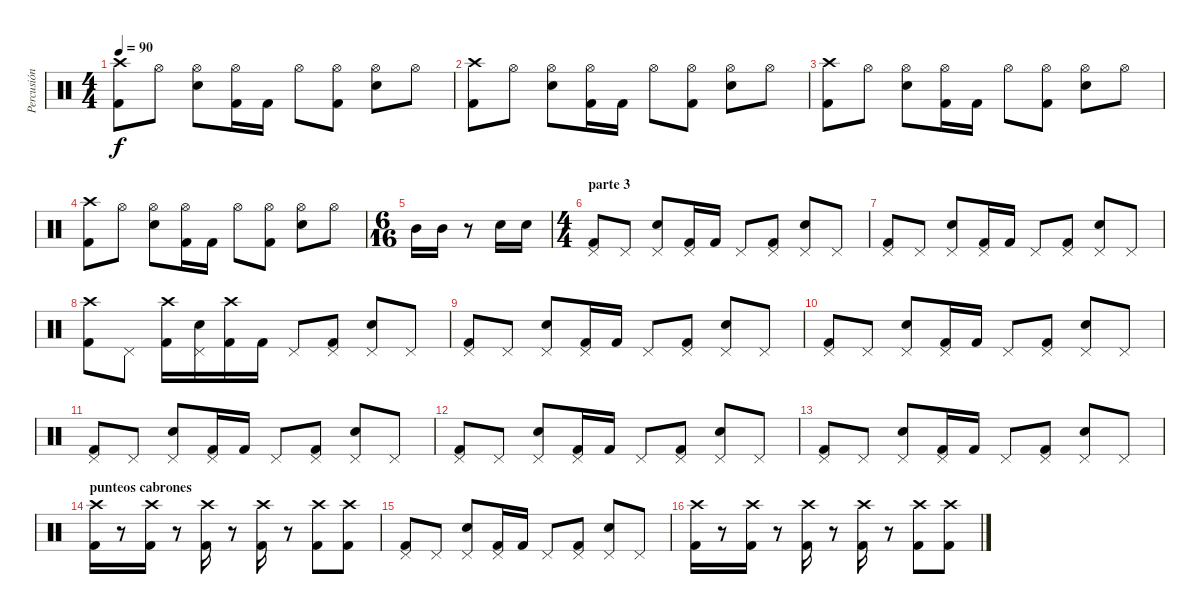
\track ("Percusión" "Percusión") {instrument percussion}
\staff {score}
\articulation defaults
\ts (4 4)
\tempo 90
\clef neutral
\ks c
("Crash high (hit)" "Kick (hit) 2").8{dy f} "Hi-Hat (open)".8 ("Hi-Hat (open)" "Electric Snare (hit)").8 ("Hi-Hat (open)" "Kick (hit) 2").16 "Kick (hit) 2".16 "Hi-Hat (open)".8 ("Hi-Hat (open)" "Kick (hit) 2").8 ("Hi-Hat (open)" "Electric Snare (hit)").8 "Hi-Hat (open)".8 |
("Crash high (hit)" "Kick (hit) 2").8 "Hi-Hat (open)".8 ("Hi-Hat (open)" "Electric Snare (hit)").8 ("Hi-Hat (open)" "Kick (hit) 2").16 "Kick (hit) 2".16 "Hi-Hat (open)".8 ("Hi-Hat (open)" "Kick (hit) 2").8 ("Hi-Hat (open)" "Electric Snare (hit)").8 "Hi-Hat (open)".8 |
("Crash high (hit)" "Kick (hit) 2").8 "Hi-Hat (open)".8 ("Hi-Hat (open)" "Electric Snare (hit)").8 ("Hi-Hat (open)" "Kick (hit) 2").16 "Kick (hit) 2".16 "Hi-Hat (open)".8 ("Hi-Hat (open)" "Kick (hit) 2").8 ("Hi-Hat (open)" "Electric Snare (hit)").8 "Hi-Hat (open)".8 |
("Crash high (hit)" "Kick (hit) 2").8 "Hi-Hat (open)".8 ("Hi-Hat (open)" "Electric Snare (hit)").8 ("Hi-Hat (open)" "Kick (hit) 2").16 "Kick (hit) 2".16 "Hi-Hat (open)".8 ("Hi-Hat (open)" "Kick (hit) 2").8 ("Hi-Hat (open)" "Electric Snare (hit)").8 "Hi-Hat (open)".8 |
\ts (6 16)
"Mid Tom (hit)".16 "Mid Tom (hit)".16 r.8 "Electric Snare (hit)".16 "Electric Snare (hit)".16 |
\ts (4 4)
\section ("" "parte 3")
("Pedal Hi-Hat (hit)" "Kick (hit) 2").8 "Pedal Hi-Hat (hit)".8 ("Pedal Hi-Hat (hit)" "Electric Snare (hit)").8 ("Pedal Hi-Hat (hit)" "Kick (hit) 2").16 "Kick (hit) 2".16 "Pedal Hi-Hat (hit)".8 ("Pedal Hi-Hat (hit)" "Kick (hit) 2").8 ("Pedal Hi-Hat (hit)" "Electric Snare (hit)").8 "Pedal Hi-Hat (hit)".8 |
("Pedal Hi-Hat (hit)" "Kick (hit) 2").8 "Pedal Hi-Hat (hit)".8 ("Pedal Hi-Hat (hit)" "Electric Snare (hit)").8 ("Pedal Hi-Hat (hit)" "Kick (hit) 2").16 "Kick (hit) 2".16 "Pedal Hi-Hat (hit)".8 ("Pedal Hi-Hat (hit)" "Kick (hit) 2").8 ("Pedal Hi-Hat (hit)" "Electric Snare (hit)").8 "Pedal Hi-Hat (hit)".8 |
("Crash high (hit)" "Kick (hit) 2").8 "Pedal Hi-Hat (hit)".8 ("Crash high (hit)" "Kick (hit) 2").16 ("Pedal Hi-Hat (hit)" "Electric Snare (hit)").16 ("Crash high (hit)" "Kick (hit) 2").16 "Kick (hit) 2".16 "Pedal Hi-Hat (hit)".8 ("Pedal Hi-Hat (hit)" "Kick (hit) 2").8 ("Pedal Hi-Hat (hit)" "Electric Snare (hit)").8 "Pedal Hi-Hat (hit)".8 |
("Pedal Hi-Hat (hit)" "Kick (hit) 2").8 "Pedal Hi-Hat (hit)".8 ("Pedal Hi-Hat (hit)" "Electric Snare (hit)").8 ("Pedal Hi-Hat (hit)" "Kick (hit) 2").16 "Kick (hit) 2".16 "Pedal Hi-Hat (hit)".8 ("Pedal Hi-Hat (hit)" "Kick (hit) 2").8 ("Pedal Hi-Hat (hit)" "Electric Snare (hit)").8 "Pedal Hi-Hat (hit)".8 |
("Pedal Hi-Hat (hit)" "Kick (hit) 2").8 "Pedal Hi-Hat (hit)".8 ("Pedal Hi-Hat (hit)" "Electric Snare (hit)").8 ("Pedal Hi-Hat (hit)" "Kick (hit) 2").16 "Kick (hit) 2".16 "Pedal Hi-Hat (hit)".8 ("Pedal Hi-Hat (hit)" "Kick (hit) 2").8 ("Pedal Hi-Hat (hit)" "Electric Snare (hit)").8 "Pedal Hi-Hat (hit)".8 |
("Pedal Hi-Hat (hit)" "Kick (hit) 2").8 "Pedal Hi-Hat (hit)".8 ("Pedal Hi-Hat (hit)" "Electric Snare (hit)").8 ("Pedal Hi-Hat (hit)" "Kick (hit) 2").16 "Kick (hit) 2".16 "Pedal Hi-Hat (hit)".8 ("Pedal Hi-Hat (hit)" "Kick (hit) 2").8 ("Pedal Hi-Hat (hit)" "Electric Snare (hit)").8 "Pedal Hi-Hat (hit)".8 |
("Pedal Hi-Hat (hit)" "Kick (hit) 2").8 "Pedal Hi-Hat (hit)".8 ("Pedal Hi-Hat (hit)" "Electric Snare (hit)").8 ("Pedal Hi-Hat (hit)" "Kick (hit) 2").16 "Kick (hit) 2".16 "Pedal Hi-Hat (hit)".8 ("Pedal Hi-Hat (hit)" "Kick (hit) 2").8 ("Pedal Hi-Hat (hit)" "Electric Snare (hit)").8 "Pedal Hi-Hat (hit)".8 |
("Pedal Hi-Hat (hit)" "Kick (hit) 2").8 "Pedal Hi-Hat (hit)".8 ("Pedal Hi-Hat (hit)" "Electric Snare (hit)").8 ("Pedal Hi-Hat (hit)" "Kick (hit) 2").16 "Kick (hit) 2".16 "Pedal Hi-Hat (hit)".8 ("Pedal Hi-Hat (hit)" "Kick (hit) 2").8 ("Pedal Hi-Hat (hit)" "Electric Snare (hit)").8 "Pedal Hi-Hat (hit)".8 |
\section ("" "punteos cabrones")
("Crash high (hit)" "Kick (hit) 2").16 r.8 ("Crash high (hit)" "Kick (hit) 2").16 r.8 ("Crash high (hit)" "Kick (hit) 2").16 r.8 ("Crash high (hit)" "Kick (hit) 2").16 r.8 ("Crash high (hit)" "Kick (hit) 2").8 ("Crash high (hit)" "Kick (hit) 2").8 |
("Pedal Hi-Hat (hit)" "Kick (hit) 2").8 "Pedal Hi-Hat (hit)".8 ("Pedal Hi-Hat (hit)" "Electric Snare (hit)").8 ("Pedal Hi-Hat (hit)" "Kick (hit) 2").16 "Kick (hit) 2".16 "Pedal Hi-Hat (hit)".8 ("Pedal Hi-Hat (hit)" "Kick (hit) 2").8 ("Pedal Hi-Hat (hit)" "Electric Snare (hit)").8 "Pedal Hi-Hat (hit)".8 |
("Crash high (hit)" "Kick (hit) 2").16 r.8 ("Crash high (hit)" "Kick (hit) 2").16 r.8 ("Crash high (hit)" "Kick (hit) 2").16 r.8 ("Crash high (hit)" "Kick (hit) 2").16 r.8 ("Crash high (hit)" "Kick (hit) 2").8 ("Crash high (hit)" "Kick (hit) 2").8
